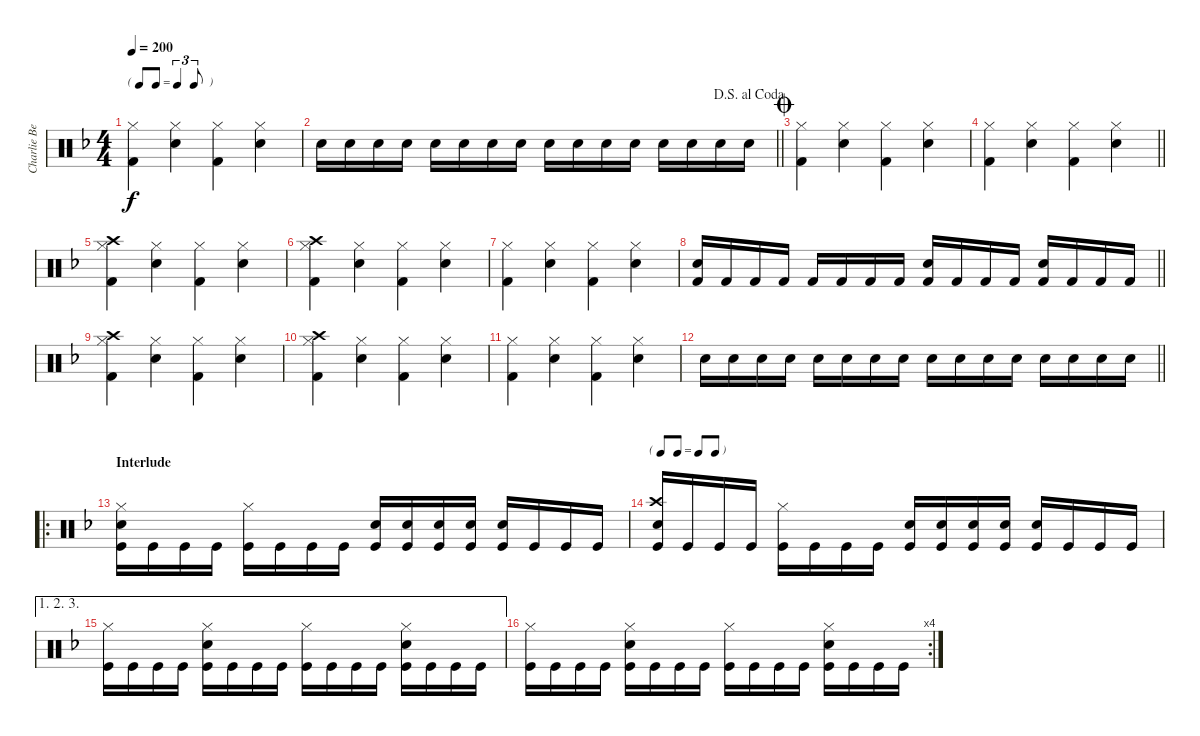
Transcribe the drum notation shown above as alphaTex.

\track ("Charlie Benante" "Charlie Be") {instrument percussion}
\staff {score}
\articulation defaults
\ts (4 4)
\tf triplet8th
\tempo 200
\clef neutral
\ks f
("Hi-Hat (closed)" "Kick (hit) 2").4{dy f} ("Hi-Hat (closed)" "Electric Snare (hit)").4 ("Hi-Hat (closed)" "Kick (hit) 2").4 ("Hi-Hat (closed)" "Electric Snare (hit)").4 |
\jump dalsegnoalcoda
\barLineRight lightlight "Electric Snare (hit)".16 "Electric Snare (hit)".16 "Electric Snare (hit)".16 "Electric Snare (hit)".16 "Electric Snare (hit)".16 "Electric Snare (hit)".16 "Electric Snare (hit)".16 "Electric Snare (hit)".16 "Electric Snare (hit)".16 "Electric Snare (hit)".16 "Electric Snare (hit)".16 "Electric Snare (hit)".16 "Electric Snare (hit)".16 "Electric Snare (hit)".16 "Electric Snare (hit)".16 "Electric Snare (hit)".16
|
\jump coda
("Hi-Hat (closed)" "Kick (hit) 2").4 ("Hi-Hat (closed)" "Electric Snare (hit)").4 ("Hi-Hat (closed)" "Kick (hit) 2").4 ("Hi-Hat (closed)" "Electric Snare (hit)").4 |
\barLineRight lightlight
("Hi-Hat (closed)" "Kick (hit) 2").4 ("Hi-Hat (closed)" "Electric Snare (hit)").4 ("Hi-Hat (closed)" "Kick (hit) 2").4 ("Hi-Hat (closed)" "Electric Snare (hit)").4 |
("Crash high (hit)" "Hi-Hat (closed)" "Kick (hit) 2").4 ("Hi-Hat (closed)" "Electric Snare (hit)").4 ("Hi-Hat (closed)" "Kick (hit) 2").4 ("Hi-Hat (closed)" "Electric Snare (hit)").4 |
("Crash high (hit)" "Hi-Hat (closed)" "Kick (hit) 2").4 ("Hi-Hat (closed)" "Electric Snare (hit)").4 ("Hi-Hat (closed)" "Kick (hit) 2").4 ("Hi-Hat (closed)" "Electric Snare (hit)").4 |
("Hi-Hat (closed)" "Kick (hit) 2").4 ("Hi-Hat (closed)" "Electric Snare (hit)").4 ("Hi-Hat (closed)" "Kick (hit) 2").4 ("Hi-Hat (closed)" "Electric Snare (hit)").4 |
\barLineRight lightlight
("Electric Snare (hit)" "Kick (hit) 2").16 "Kick (hit) 2".16 "Kick (hit) 2".16 "Kick (hit) 2".16 "Kick (hit) 2".16 "Kick (hit) 2".16 "Kick (hit) 2".16 "Kick (hit) 2".16 ("Electric Snare (hit)" "Kick (hit) 2").16 "Kick (hit) 2".16 "Kick (hit) 2".16 "Kick (hit) 2".16 ("Electric Snare (hit)" "Kick (hit) 2").16 "Kick (hit) 2".16 "Kick (hit) 2".16 "Kick (hit) 2".16 |
("Crash high (hit)" "Hi-Hat (closed)" "Kick (hit) 2").4 ("Hi-Hat (closed)" "Electric Snare (hit)").4 ("Hi-Hat (closed)" "Kick (hit) 2").4 ("Hi-Hat (closed)" "Electric Snare (hit)").4 |
("Crash high (hit)" "Hi-Hat (closed)" "Kick (hit) 2").4 ("Hi-Hat (closed)" "Electric Snare (hit)").4 ("Hi-Hat (closed)" "Kick (hit) 2").4 ("Hi-Hat (closed)" "Electric Snare (hit)").4 |
("Hi-Hat (closed)" "Kick (hit) 2").4 ("Hi-Hat (closed)" "Electric Snare (hit)").4 ("Hi-Hat (closed)" "Kick (hit) 2").4 ("Hi-Hat (closed)" "Electric Snare (hit)").4 |
\barLineRight lightlight "Electric Snare (hit)".16 "Electric Snare (hit)".16 "Electric Snare (hit)".16 "Electric Snare (hit)".16 "Electric Snare (hit)".16 "Electric Snare (hit)".16 "Electric Snare (hit)".16 "Electric Snare (hit)".16 "Electric Snare (hit)".16 "Electric Snare (hit)".16 "Electric Snare (hit)".16 "Electric Snare (hit)".16 "Electric Snare (hit)".16 "Electric Snare (hit)".16 "Electric Snare (hit)".16 "Electric Snare (hit)".16
|
\ro
\section ("" "Interlude")
("Hi-Hat (closed)" "Electric Snare (hit)" "Kick (hit)").16 "Kick (hit)".16 "Kick (hit)".16 "Kick (hit)".16 ("Hi-Hat (closed)" "Kick (hit)").16 "Kick (hit)".16 "Kick (hit)".16 "Kick (hit)".16 ("Electric Snare (hit)" "Kick (hit)").16 ("Electric Snare (hit)" "Kick (hit)").16 ("Electric Snare (hit)" "Kick (hit)").16 ("Electric Snare (hit)" "Kick (hit)").16 ("Electric Snare (hit)" "Kick (hit)").16 "Kick (hit)".16 "Kick (hit)".16 "Kick (hit)".16 |
\tf none
("Crash high (hit)" "Electric Snare (hit)" "Kick (hit)").16 "Kick (hit)".16 "Kick (hit)".16 "Kick (hit)".16 ("Hi-Hat (closed)" "Kick (hit)").16 "Kick (hit)".16 "Kick (hit)".16 "Kick (hit)".16 ("Electric Snare (hit)" "Kick (hit)").16 ("Electric Snare (hit)" "Kick (hit)").16 ("Electric Snare (hit)" "Kick (hit)").16 ("Electric Snare (hit)" "Kick (hit)").16 ("Electric Snare (hit)" "Kick (hit)").16 "Kick (hit)".16 "Kick (hit)".16 "Kick (hit)".16 |
\ae (1 2 3)
("Hi-Hat (closed)" "Kick (hit)").16 "Kick (hit)".16 "Kick (hit)".16 "Kick (hit)".16 ("Hi-Hat (closed)" "Electric Snare (hit)" "Kick (hit)").16 "Kick (hit)".16 "Kick (hit)".16 "Kick (hit)".16 ("Hi-Hat (closed)" "Kick (hit)").16 "Kick (hit)".16 "Kick (hit)".16 "Kick (hit)".16 ("Hi-Hat (closed)" "Electric Snare (hit)" "Kick (hit)").16 "Kick (hit)".16 "Kick (hit)".16 "Kick (hit)".16 |
\rc 4
("Hi-Hat (closed)" "Kick (hit)").16 "Kick (hit)".16 "Kick (hit)".16 "Kick (hit)".16 ("Hi-Hat (closed)" "Electric Snare (hit)" "Kick (hit)").16 "Kick (hit)".16 "Kick (hit)".16 "Kick (hit)".16 ("Hi-Hat (closed)" "Kick (hit)").16 "Kick (hit)".16 "Kick (hit)".16 "Kick (hit)".16 ("Hi-Hat (closed)" "Electric Snare (hit)" "Kick (hit)").16 "Kick (hit)".16 "Kick (hit)".16 "Kick (hit)".16
